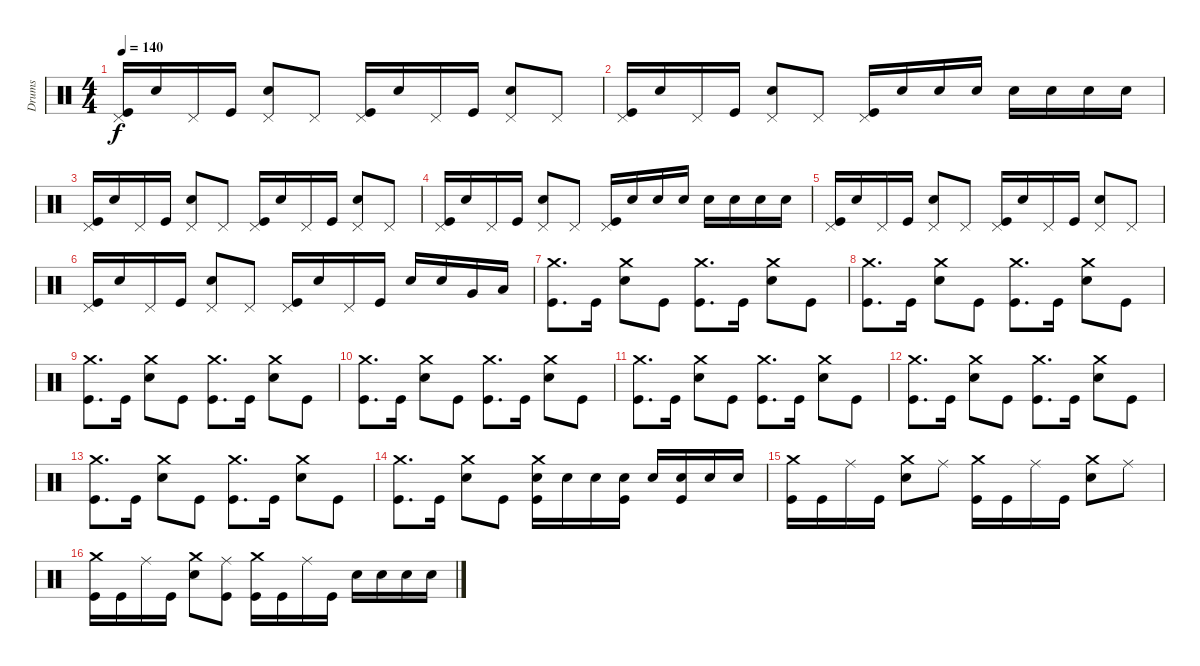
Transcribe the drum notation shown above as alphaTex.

\track ("Drums" "Drums") {instrument percussion}
\staff {score}
\articulation defaults
\ts (4 4)
\tempo 140
\clef neutral
\ks c
("Kick (hit)" "Pedal Hi-Hat (hit)").16{dy f} "Snare (hit) 2".16 "Pedal Hi-Hat (hit)".16 "Kick (hit)".16 ("Snare (hit) 2" "Pedal Hi-Hat (hit)").8 "Pedal Hi-Hat (hit)".8 ("Kick (hit)" "Pedal Hi-Hat (hit)").16 "Snare (hit) 2".16 "Pedal Hi-Hat (hit)".16 "Kick (hit)".16 ("Snare (hit) 2" "Pedal Hi-Hat (hit)").8 "Pedal Hi-Hat (hit)".8 |
("Kick (hit)" "Pedal Hi-Hat (hit)").16 "Snare (hit) 2".16 "Pedal Hi-Hat (hit)".16 "Kick (hit)".16 ("Snare (hit) 2" "Pedal Hi-Hat (hit)").8 "Pedal Hi-Hat (hit)".8 ("Kick (hit)" "Pedal Hi-Hat (hit)").16 "Snare (hit) 2".16 "Snare (hit) 2".16 "Snare (hit) 2".16 "Snare (hit) 2".16 "Snare (hit) 2".16 "Snare (hit) 2".16 "Snare (hit) 2".16 |
("Kick (hit)" "Pedal Hi-Hat (hit)").16 "Snare (hit) 2".16 "Pedal Hi-Hat (hit)".16 "Kick (hit)".16 ("Snare (hit) 2" "Pedal Hi-Hat (hit)").8 "Pedal Hi-Hat (hit)".8 ("Kick (hit)" "Pedal Hi-Hat (hit)").16 "Snare (hit) 2".16 "Pedal Hi-Hat (hit)".16 "Kick (hit)".16 ("Snare (hit) 2" "Pedal Hi-Hat (hit)").8 "Pedal Hi-Hat (hit)".8 |
("Kick (hit)" "Pedal Hi-Hat (hit)").16 "Snare (hit) 2".16 "Pedal Hi-Hat (hit)".16 "Kick (hit)".16 ("Snare (hit) 2" "Pedal Hi-Hat (hit)").8 "Pedal Hi-Hat (hit)".8 ("Kick (hit)" "Pedal Hi-Hat (hit)").16 "Snare (hit) 2".16 "Snare (hit) 2".16 "Snare (hit) 2".16 "Snare (hit) 2".16 "Snare (hit) 2".16 "Snare (hit) 2".16 "Snare (hit) 2".16 |
("Kick (hit)" "Pedal Hi-Hat (hit)").16 "Snare (hit) 2".16 "Pedal Hi-Hat (hit)".16 "Kick (hit)".16 ("Snare (hit) 2" "Pedal Hi-Hat (hit)").8 "Pedal Hi-Hat (hit)".8 ("Kick (hit)" "Pedal Hi-Hat (hit)").16 "Snare (hit) 2".16 "Pedal Hi-Hat (hit)".16 "Kick (hit)".16 ("Snare (hit) 2" "Pedal Hi-Hat (hit)").8 "Pedal Hi-Hat (hit)".8 |
("Kick (hit)" "Pedal Hi-Hat (hit)").16 "Snare (hit) 2".16 "Pedal Hi-Hat (hit)".16 "Kick (hit)".16 ("Snare (hit) 2" "Pedal Hi-Hat (hit)").8 "Pedal Hi-Hat (hit)".8 ("Kick (hit)" "Pedal Hi-Hat (hit)").16 "Snare (hit) 2".16 "Pedal Hi-Hat (hit)".16 "Kick (hit)".16 "Snare (hit) 2".16 "Snare (hit) 2".16 "Very Low Tom (hit)".16 "Low Floor Tom (hit)".16 |
("Kick (hit)" "Crash medium (hit)").8{d} "Kick (hit)".16 ("Snare (hit) 2" "Crash medium (hit)").8 "Kick (hit)".8 ("Kick (hit)" "Crash medium (hit)").8{d} "Kick (hit)".16 ("Snare (hit) 2" "Crash medium (hit)").8 "Kick (hit)".8 |
("Kick (hit)" "Crash medium (hit)").8{d} "Kick (hit)".16 ("Snare (hit) 2" "Crash medium (hit)").8 "Kick (hit)".8 ("Kick (hit)" "Crash medium (hit)").8{d} "Kick (hit)".16 ("Snare (hit) 2" "Crash medium (hit)").8 "Kick (hit)".8 |
("Kick (hit)" "Crash medium (hit)").8{d} "Kick (hit)".16 ("Snare (hit) 2" "Crash medium (hit)").8 "Kick (hit)".8 ("Kick (hit)" "Crash medium (hit)").8{d} "Kick (hit)".16 ("Snare (hit) 2" "Crash medium (hit)").8 "Kick (hit)".8 |
("Kick (hit)" "Crash medium (hit)").8{d} "Kick (hit)".16 ("Snare (hit) 2" "Crash medium (hit)").8 "Kick (hit)".8 ("Kick (hit)" "Crash medium (hit)").8{d} "Kick (hit)".16 ("Snare (hit) 2" "Crash medium (hit)").8 "Kick (hit)".8 |
("Kick (hit)" "Crash medium (hit)").8{d} "Kick (hit)".16 ("Snare (hit) 2" "Crash medium (hit)").8 "Kick (hit)".8 ("Kick (hit)" "Crash medium (hit)").8{d} "Kick (hit)".16 ("Snare (hit) 2" "Crash medium (hit)").8 "Kick (hit)".8 |
("Kick (hit)" "Crash medium (hit)").8{d} "Kick (hit)".16 ("Snare (hit) 2" "Crash medium (hit)").8 "Kick (hit)".8 ("Kick (hit)" "Crash medium (hit)").8{d} "Kick (hit)".16 ("Snare (hit) 2" "Crash medium (hit)").8 "Kick (hit)".8 |
("Kick (hit)" "Crash medium (hit)").8{d} "Kick (hit)".16 ("Snare (hit) 2" "Crash medium (hit)").8 "Kick (hit)".8 ("Kick (hit)" "Crash medium (hit)").8{d} "Kick (hit)".16 ("Snare (hit) 2" "Crash medium (hit)").8 "Kick (hit)".8 |
("Kick (hit)" "Crash medium (hit)").8{d} "Kick (hit)".16 ("Snare (hit) 2" "Crash medium (hit)").8 "Kick (hit)".8 ("Kick (hit)" "Snare (hit) 2" "Crash medium (hit)").16 "Snare (hit) 2".16 "Snare (hit) 2".16 ("Kick (hit)" "Snare (hit) 2").16 "Snare (hit) 2".16 ("Kick (hit)" "Snare (hit) 2").16 "Snare (hit) 2".16 "Snare (hit) 2".16 |
("Kick (hit)" "Crash medium (hit)").16 "Kick (hit)".16 "Ride (middle)".16 "Kick (hit)".16 ("Snare (hit) 2" "Crash medium (hit)").8 "Ride (middle)".8 ("Kick (hit)" "Crash medium (hit)").16 "Kick (hit)".16 "Ride (middle)".16 "Kick (hit)".16 ("Snare (hit) 2" "Crash medium (hit)").8 "Ride (middle)".8 |
("Kick (hit)" "Crash medium (hit)").16 "Kick (hit)".16 "Ride (middle)".16 "Kick (hit)".16 ("Snare (hit) 2" "Crash medium (hit)").8 ("Kick (hit)" "Ride (middle)").8 ("Kick (hit)" "Crash medium (hit)").16 "Kick (hit)".16 "Ride (middle)".16 "Kick (hit)".16 "Snare (hit) 2".16 "Snare (hit) 2".16 "Snare (hit) 2".16 "Snare (hit) 2".16
